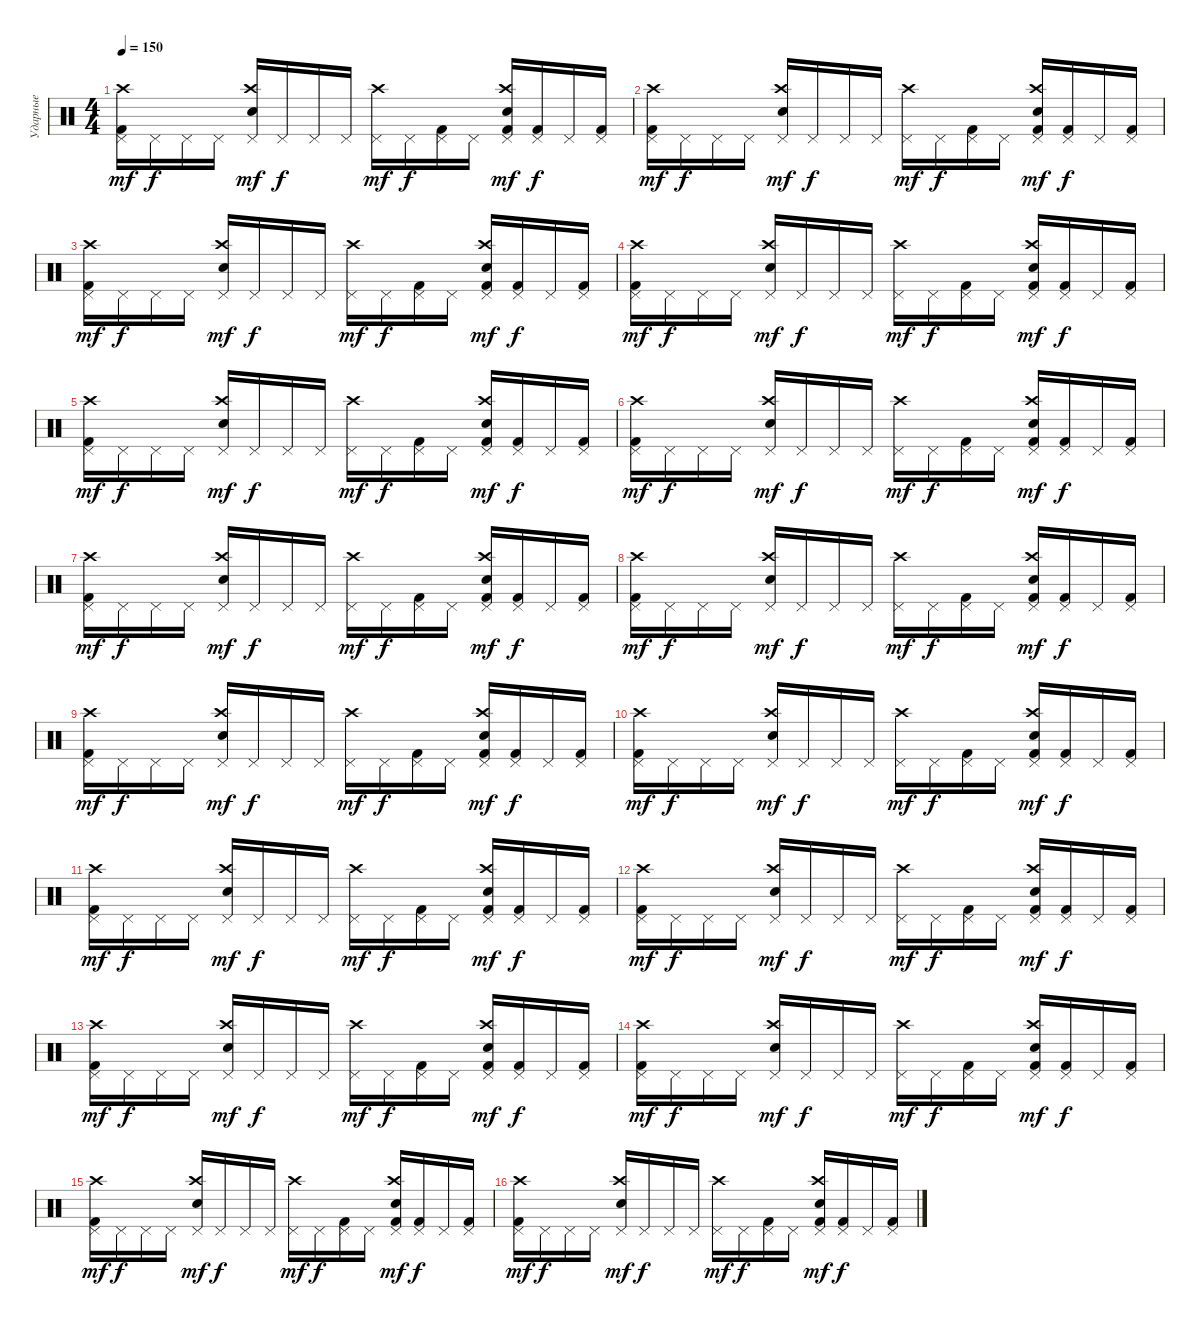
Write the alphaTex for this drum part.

\track ("Ударные" "Ударные") {instrument percussion}
\staff {score}
\articulation defaults
\ts (4 4)
\tempo 150
\clef neutral
\ks c
("Pedal Hi-Hat (hit)" "Kick (hit) 2" "Crash high (hit)").16{dy mf} "Pedal Hi-Hat (hit)".16{dy f} "Pedal Hi-Hat (hit)".16 "Pedal Hi-Hat (hit)".16 ("Pedal Hi-Hat (hit)" "Electric Snare (hit)" "Crash high (hit)").16{dy mf} "Pedal Hi-Hat (hit)".16{dy f} "Pedal Hi-Hat (hit)".16 "Pedal Hi-Hat (hit)".16 ("Pedal Hi-Hat (hit)" "Crash high (hit)").16{dy mf} "Pedal Hi-Hat (hit)".16{dy f} ("Pedal Hi-Hat (hit)" "Kick (hit) 2").16 "Pedal Hi-Hat (hit)".16 ("Pedal Hi-Hat (hit)" "Electric Snare (hit)" "Kick (hit) 2" "Crash high (hit)").16{dy mf} ("Pedal Hi-Hat (hit)" "Kick (hit) 2").16{dy f} "Pedal Hi-Hat (hit)".16 ("Pedal Hi-Hat (hit)" "Kick (hit) 2").16 |
("Crash high (hit)" "Pedal Hi-Hat (hit)" "Kick (hit) 2").16{dy mf} "Pedal Hi-Hat (hit)".16{dy f} "Pedal Hi-Hat (hit)".16 "Pedal Hi-Hat (hit)".16 ("Crash high (hit)" "Pedal Hi-Hat (hit)" "Electric Snare (hit)").16{dy mf} "Pedal Hi-Hat (hit)".16{dy f} "Pedal Hi-Hat (hit)".16 "Pedal Hi-Hat (hit)".16 ("Crash high (hit)" "Pedal Hi-Hat (hit)").16{dy mf} "Pedal Hi-Hat (hit)".16{dy f} ("Pedal Hi-Hat (hit)" "Kick (hit) 2").16 "Pedal Hi-Hat (hit)".16 ("Crash high (hit)" "Pedal Hi-Hat (hit)" "Electric Snare (hit)" "Kick (hit) 2").16{dy mf} ("Pedal Hi-Hat (hit)" "Kick (hit) 2").16{dy f} "Pedal Hi-Hat (hit)".16 ("Pedal Hi-Hat (hit)" "Kick (hit) 2").16 |
("Pedal Hi-Hat (hit)" "Kick (hit) 2" "Crash high (hit)").16{dy mf} "Pedal Hi-Hat (hit)".16{dy f} "Pedal Hi-Hat (hit)".16 "Pedal Hi-Hat (hit)".16 ("Pedal Hi-Hat (hit)" "Electric Snare (hit)" "Crash high (hit)").16{dy mf} "Pedal Hi-Hat (hit)".16{dy f} "Pedal Hi-Hat (hit)".16 "Pedal Hi-Hat (hit)".16 ("Pedal Hi-Hat (hit)" "Crash high (hit)").16{dy mf} "Pedal Hi-Hat (hit)".16{dy f} ("Pedal Hi-Hat (hit)" "Kick (hit) 2").16 "Pedal Hi-Hat (hit)".16 ("Pedal Hi-Hat (hit)" "Electric Snare (hit)" "Kick (hit) 2" "Crash high (hit)").16{dy mf} ("Pedal Hi-Hat (hit)" "Kick (hit) 2").16{dy f} "Pedal Hi-Hat (hit)".16 ("Pedal Hi-Hat (hit)" "Kick (hit) 2").16 |
("Crash high (hit)" "Pedal Hi-Hat (hit)" "Kick (hit) 2").16{dy mf} "Pedal Hi-Hat (hit)".16{dy f} "Pedal Hi-Hat (hit)".16 "Pedal Hi-Hat (hit)".16 ("Crash high (hit)" "Pedal Hi-Hat (hit)" "Electric Snare (hit)").16{dy mf} "Pedal Hi-Hat (hit)".16{dy f} "Pedal Hi-Hat (hit)".16 "Pedal Hi-Hat (hit)".16 ("Crash high (hit)" "Pedal Hi-Hat (hit)").16{dy mf} "Pedal Hi-Hat (hit)".16{dy f} ("Pedal Hi-Hat (hit)" "Kick (hit) 2").16 "Pedal Hi-Hat (hit)".16 ("Crash high (hit)" "Pedal Hi-Hat (hit)" "Electric Snare (hit)" "Kick (hit) 2").16{dy mf} ("Pedal Hi-Hat (hit)" "Kick (hit) 2").16{dy f} "Pedal Hi-Hat (hit)".16 ("Pedal Hi-Hat (hit)" "Kick (hit) 2").16 |
("Crash high (hit)" "Pedal Hi-Hat (hit)" "Kick (hit) 2").16{dy mf} "Pedal Hi-Hat (hit)".16{dy f} "Pedal Hi-Hat (hit)".16 "Pedal Hi-Hat (hit)".16 ("Crash high (hit)" "Pedal Hi-Hat (hit)" "Electric Snare (hit)").16{dy mf} "Pedal Hi-Hat (hit)".16{dy f} "Pedal Hi-Hat (hit)".16 "Pedal Hi-Hat (hit)".16 ("Crash high (hit)" "Pedal Hi-Hat (hit)").16{dy mf} "Pedal Hi-Hat (hit)".16{dy f} ("Pedal Hi-Hat (hit)" "Kick (hit) 2").16 "Pedal Hi-Hat (hit)".16 ("Crash high (hit)" "Pedal Hi-Hat (hit)" "Electric Snare (hit)" "Kick (hit) 2").16{dy mf} ("Pedal Hi-Hat (hit)" "Kick (hit) 2").16{dy f} "Pedal Hi-Hat (hit)".16 ("Pedal Hi-Hat (hit)" "Kick (hit) 2").16 |
("Crash high (hit)" "Pedal Hi-Hat (hit)" "Kick (hit) 2").16{dy mf} "Pedal Hi-Hat (hit)".16{dy f} "Pedal Hi-Hat (hit)".16 "Pedal Hi-Hat (hit)".16 ("Crash high (hit)" "Pedal Hi-Hat (hit)" "Electric Snare (hit)").16{dy mf} "Pedal Hi-Hat (hit)".16{dy f} "Pedal Hi-Hat (hit)".16 "Pedal Hi-Hat (hit)".16 ("Crash high (hit)" "Pedal Hi-Hat (hit)").16{dy mf} "Pedal Hi-Hat (hit)".16{dy f} ("Pedal Hi-Hat (hit)" "Kick (hit) 2").16 "Pedal Hi-Hat (hit)".16 ("Crash high (hit)" "Pedal Hi-Hat (hit)" "Electric Snare (hit)" "Kick (hit) 2").16{dy mf} ("Pedal Hi-Hat (hit)" "Kick (hit) 2").16{dy f} "Pedal Hi-Hat (hit)".16 ("Pedal Hi-Hat (hit)" "Kick (hit) 2").16 |
("Crash high (hit)" "Pedal Hi-Hat (hit)" "Kick (hit) 2").16{dy mf} "Pedal Hi-Hat (hit)".16{dy f} "Pedal Hi-Hat (hit)".16 "Pedal Hi-Hat (hit)".16 ("Crash high (hit)" "Pedal Hi-Hat (hit)" "Electric Snare (hit)").16{dy mf} "Pedal Hi-Hat (hit)".16{dy f} "Pedal Hi-Hat (hit)".16 "Pedal Hi-Hat (hit)".16 ("Crash high (hit)" "Pedal Hi-Hat (hit)").16{dy mf} "Pedal Hi-Hat (hit)".16{dy f} ("Pedal Hi-Hat (hit)" "Kick (hit) 2").16 "Pedal Hi-Hat (hit)".16 ("Crash high (hit)" "Pedal Hi-Hat (hit)" "Electric Snare (hit)" "Kick (hit) 2").16{dy mf} ("Pedal Hi-Hat (hit)" "Kick (hit) 2").16{dy f} "Pedal Hi-Hat (hit)".16 ("Pedal Hi-Hat (hit)" "Kick (hit) 2").16 |
("Pedal Hi-Hat (hit)" "Kick (hit) 2" "Crash high (hit)").16{dy mf} "Pedal Hi-Hat (hit)".16{dy f} "Pedal Hi-Hat (hit)".16 "Pedal Hi-Hat (hit)".16 ("Pedal Hi-Hat (hit)" "Electric Snare (hit)" "Crash high (hit)").16{dy mf} "Pedal Hi-Hat (hit)".16{dy f} "Pedal Hi-Hat (hit)".16 "Pedal Hi-Hat (hit)".16 ("Pedal Hi-Hat (hit)" "Crash high (hit)").16{dy mf} "Pedal Hi-Hat (hit)".16{dy f} ("Pedal Hi-Hat (hit)" "Kick (hit) 2").16 "Pedal Hi-Hat (hit)".16 ("Pedal Hi-Hat (hit)" "Electric Snare (hit)" "Kick (hit) 2" "Crash high (hit)").16{dy mf} ("Pedal Hi-Hat (hit)" "Kick (hit) 2").16{dy f} "Pedal Hi-Hat (hit)".16 ("Pedal Hi-Hat (hit)" "Kick (hit) 2").16 |
("Pedal Hi-Hat (hit)" "Kick (hit) 2" "Crash high (hit)").16{dy mf} "Pedal Hi-Hat (hit)".16{dy f} "Pedal Hi-Hat (hit)".16 "Pedal Hi-Hat (hit)".16 ("Pedal Hi-Hat (hit)" "Electric Snare (hit)" "Crash high (hit)").16{dy mf} "Pedal Hi-Hat (hit)".16{dy f} "Pedal Hi-Hat (hit)".16 "Pedal Hi-Hat (hit)".16 ("Pedal Hi-Hat (hit)" "Crash high (hit)").16{dy mf} "Pedal Hi-Hat (hit)".16{dy f} ("Pedal Hi-Hat (hit)" "Kick (hit) 2").16 "Pedal Hi-Hat (hit)".16 ("Pedal Hi-Hat (hit)" "Electric Snare (hit)" "Kick (hit) 2" "Crash high (hit)").16{dy mf} ("Pedal Hi-Hat (hit)" "Kick (hit) 2").16{dy f} "Pedal Hi-Hat (hit)".16 ("Pedal Hi-Hat (hit)" "Kick (hit) 2").16 |
("Pedal Hi-Hat (hit)" "Kick (hit) 2" "Crash high (hit)").16{dy mf} "Pedal Hi-Hat (hit)".16{dy f} "Pedal Hi-Hat (hit)".16 "Pedal Hi-Hat (hit)".16 ("Pedal Hi-Hat (hit)" "Electric Snare (hit)" "Crash high (hit)").16{dy mf} "Pedal Hi-Hat (hit)".16{dy f} "Pedal Hi-Hat (hit)".16 "Pedal Hi-Hat (hit)".16 ("Pedal Hi-Hat (hit)" "Crash high (hit)").16{dy mf} "Pedal Hi-Hat (hit)".16{dy f} ("Pedal Hi-Hat (hit)" "Kick (hit) 2").16 "Pedal Hi-Hat (hit)".16 ("Pedal Hi-Hat (hit)" "Electric Snare (hit)" "Kick (hit) 2" "Crash high (hit)").16{dy mf} ("Pedal Hi-Hat (hit)" "Kick (hit) 2").16{dy f} "Pedal Hi-Hat (hit)".16 ("Pedal Hi-Hat (hit)" "Kick (hit) 2").16 |
("Crash high (hit)" "Pedal Hi-Hat (hit)" "Kick (hit) 2").16{dy mf} "Pedal Hi-Hat (hit)".16{dy f} "Pedal Hi-Hat (hit)".16 "Pedal Hi-Hat (hit)".16 ("Crash high (hit)" "Pedal Hi-Hat (hit)" "Electric Snare (hit)").16{dy mf} "Pedal Hi-Hat (hit)".16{dy f} "Pedal Hi-Hat (hit)".16 "Pedal Hi-Hat (hit)".16 ("Crash high (hit)" "Pedal Hi-Hat (hit)").16{dy mf} "Pedal Hi-Hat (hit)".16{dy f} ("Pedal Hi-Hat (hit)" "Kick (hit) 2").16 "Pedal Hi-Hat (hit)".16 ("Crash high (hit)" "Pedal Hi-Hat (hit)" "Electric Snare (hit)" "Kick (hit) 2").16{dy mf} ("Pedal Hi-Hat (hit)" "Kick (hit) 2").16{dy f} "Pedal Hi-Hat (hit)".16 ("Pedal Hi-Hat (hit)" "Kick (hit) 2").16 |
("Crash high (hit)" "Pedal Hi-Hat (hit)" "Kick (hit) 2").16{dy mf} "Pedal Hi-Hat (hit)".16{dy f} "Pedal Hi-Hat (hit)".16 "Pedal Hi-Hat (hit)".16 ("Crash high (hit)" "Pedal Hi-Hat (hit)" "Electric Snare (hit)").16{dy mf} "Pedal Hi-Hat (hit)".16{dy f} "Pedal Hi-Hat (hit)".16 "Pedal Hi-Hat (hit)".16 ("Crash high (hit)" "Pedal Hi-Hat (hit)").16{dy mf} "Pedal Hi-Hat (hit)".16{dy f} ("Pedal Hi-Hat (hit)" "Kick (hit) 2").16 "Pedal Hi-Hat (hit)".16 ("Crash high (hit)" "Pedal Hi-Hat (hit)" "Electric Snare (hit)" "Kick (hit) 2").16{dy mf} ("Pedal Hi-Hat (hit)" "Kick (hit) 2").16{dy f} "Pedal Hi-Hat (hit)".16 ("Pedal Hi-Hat (hit)" "Kick (hit) 2").16 |
("Pedal Hi-Hat (hit)" "Kick (hit) 2" "Crash high (hit)").16{dy mf} "Pedal Hi-Hat (hit)".16{dy f} "Pedal Hi-Hat (hit)".16 "Pedal Hi-Hat (hit)".16 ("Pedal Hi-Hat (hit)" "Electric Snare (hit)" "Crash high (hit)").16{dy mf} "Pedal Hi-Hat (hit)".16{dy f} "Pedal Hi-Hat (hit)".16 "Pedal Hi-Hat (hit)".16 ("Pedal Hi-Hat (hit)" "Crash high (hit)").16{dy mf} "Pedal Hi-Hat (hit)".16{dy f} ("Pedal Hi-Hat (hit)" "Kick (hit) 2").16 "Pedal Hi-Hat (hit)".16 ("Pedal Hi-Hat (hit)" "Electric Snare (hit)" "Kick (hit) 2" "Crash high (hit)").16{dy mf} ("Pedal Hi-Hat (hit)" "Kick (hit) 2").16{dy f} "Pedal Hi-Hat (hit)".16 ("Pedal Hi-Hat (hit)" "Kick (hit) 2").16 |
("Crash high (hit)" "Pedal Hi-Hat (hit)" "Kick (hit) 2").16{dy mf} "Pedal Hi-Hat (hit)".16{dy f} "Pedal Hi-Hat (hit)".16 "Pedal Hi-Hat (hit)".16 ("Crash high (hit)" "Pedal Hi-Hat (hit)" "Electric Snare (hit)").16{dy mf} "Pedal Hi-Hat (hit)".16{dy f} "Pedal Hi-Hat (hit)".16 "Pedal Hi-Hat (hit)".16 ("Crash high (hit)" "Pedal Hi-Hat (hit)").16{dy mf} "Pedal Hi-Hat (hit)".16{dy f} ("Pedal Hi-Hat (hit)" "Kick (hit) 2").16 "Pedal Hi-Hat (hit)".16 ("Crash high (hit)" "Pedal Hi-Hat (hit)" "Electric Snare (hit)" "Kick (hit) 2").16{dy mf} ("Pedal Hi-Hat (hit)" "Kick (hit) 2").16{dy f} "Pedal Hi-Hat (hit)".16 ("Pedal Hi-Hat (hit)" "Kick (hit) 2").16 |
("Crash high (hit)" "Pedal Hi-Hat (hit)" "Kick (hit) 2").16{dy mf} "Pedal Hi-Hat (hit)".16{dy f} "Pedal Hi-Hat (hit)".16 "Pedal Hi-Hat (hit)".16 ("Crash high (hit)" "Pedal Hi-Hat (hit)" "Electric Snare (hit)").16{dy mf} "Pedal Hi-Hat (hit)".16{dy f} "Pedal Hi-Hat (hit)".16 "Pedal Hi-Hat (hit)".16 ("Crash high (hit)" "Pedal Hi-Hat (hit)").16{dy mf} "Pedal Hi-Hat (hit)".16{dy f} ("Pedal Hi-Hat (hit)" "Kick (hit) 2").16 "Pedal Hi-Hat (hit)".16 ("Crash high (hit)" "Pedal Hi-Hat (hit)" "Electric Snare (hit)" "Kick (hit) 2").16{dy mf} ("Pedal Hi-Hat (hit)" "Kick (hit) 2").16{dy f} "Pedal Hi-Hat (hit)".16 ("Pedal Hi-Hat (hit)" "Kick (hit) 2").16 |
("Pedal Hi-Hat (hit)" "Kick (hit) 2" "Crash high (hit)").16{dy mf} "Pedal Hi-Hat (hit)".16{dy f} "Pedal Hi-Hat (hit)".16 "Pedal Hi-Hat (hit)".16 ("Pedal Hi-Hat (hit)" "Electric Snare (hit)" "Crash high (hit)").16{dy mf} "Pedal Hi-Hat (hit)".16{dy f} "Pedal Hi-Hat (hit)".16 "Pedal Hi-Hat (hit)".16 ("Pedal Hi-Hat (hit)" "Crash high (hit)").16{dy mf} "Pedal Hi-Hat (hit)".16{dy f} ("Pedal Hi-Hat (hit)" "Kick (hit) 2").16 "Pedal Hi-Hat (hit)".16 ("Pedal Hi-Hat (hit)" "Electric Snare (hit)" "Kick (hit) 2" "Crash high (hit)").16{dy mf} ("Pedal Hi-Hat (hit)" "Kick (hit) 2").16{dy f} "Pedal Hi-Hat (hit)".16 ("Pedal Hi-Hat (hit)" "Kick (hit) 2").16
